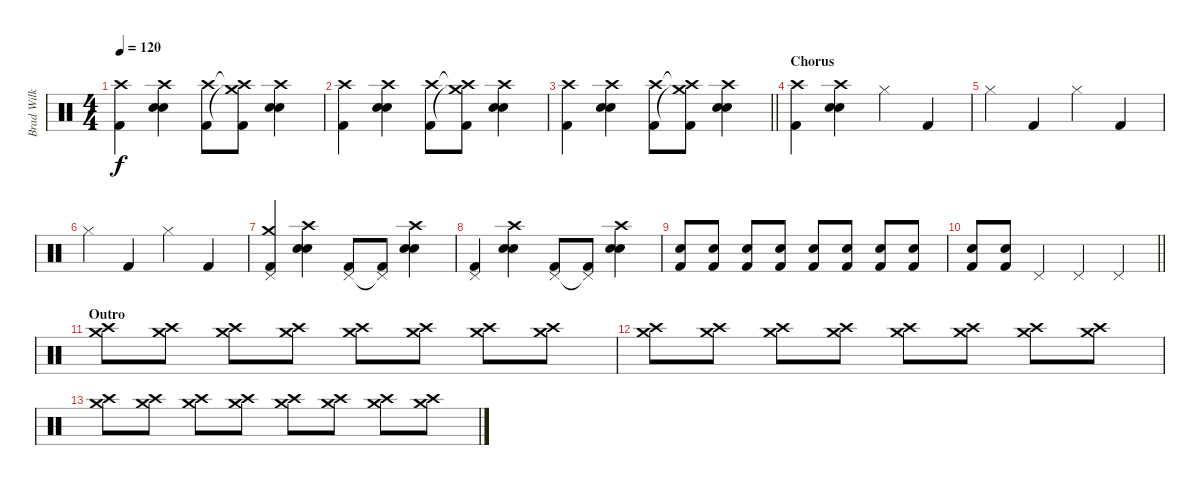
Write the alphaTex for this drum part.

\track ("Brad Wilk" "Brad Wilk") {instrument percussion}
\staff {score}
\articulation defaults
\ts (4 4)
\tempo 120
\clef neutral
\ks c
("Crash high (hit)" "Kick (hit) 2").4{dy f} ("Electric Snare (hit)" "Snare (hit) 2" "Crash high (hit)").4 ("Crash high (hit)" "Kick (hit) 2").8 ("Crash high (hit)"{t} "Crash medium (hit)"{t} "Kick (hit) 2").8 ("Electric Snare (hit)" "Snare (hit) 2" "Crash high (hit)").4 |
("Crash high (hit)" "Kick (hit) 2").4 ("Electric Snare (hit)" "Snare (hit) 2" "Crash high (hit)").4 ("Crash high (hit)" "Kick (hit) 2").8 ("Crash high (hit)"{t} "Crash medium (hit)"{t} "Kick (hit) 2").8 ("Electric Snare (hit)" "Snare (hit) 2" "Crash high (hit)").4 |
\barLineRight lightlight
("Crash high (hit)" "Kick (hit) 2").4 ("Electric Snare (hit)" "Snare (hit) 2" "Crash high (hit)").4 ("Crash high (hit)" "Kick (hit) 2").8 ("Crash high (hit)"{t} "Crash medium (hit)"{t} "Kick (hit) 2").8 ("Electric Snare (hit)" "Snare (hit) 2" "Crash high (hit)").4 |
\section ("" "Chorus")
("Crash high (hit)" "Kick (hit) 2").4 ("Electric Snare (hit)" "Snare (hit) 2" "Crash high (hit)").4 "Hi-Hat (closed)".4 "Kick (hit) 2".4 |
"Hi-Hat (closed)".4 "Kick (hit) 2".4 "Hi-Hat (closed)".4 "Kick (hit) 2".4 |
"Hi-Hat (closed)".4 "Kick (hit) 2".4 "Hi-Hat (closed)".4 "Kick (hit) 2".4 |
("Crash medium (hit)" "Pedal Hi-Hat (hit)" "Kick (hit) 2").4 ("Electric Snare (hit)" "Snare (hit) 2" "Crash high (hit)").4 ("Pedal Hi-Hat (hit)" "Kick (hit) 2").8 ("Pedal Hi-Hat (hit)"{t} "Kick (hit) 2").8 ("Electric Snare (hit)" "Snare (hit) 2" "Crash high (hit)").4 |
("Pedal Hi-Hat (hit)" "Kick (hit) 2").4 ("Electric Snare (hit)" "Snare (hit) 2" "Crash high (hit)").4 ("Pedal Hi-Hat (hit)" "Kick (hit) 2").8 ("Pedal Hi-Hat (hit)"{t} "Kick (hit) 2").8 ("Electric Snare (hit)" "Snare (hit) 2" "Crash high (hit)").4 |
("Electric Snare (hit)" "Kick (hit) 2").8 ("Electric Snare (hit)" "Kick (hit) 2").8 ("Electric Snare (hit)" "Kick (hit) 2").8 ("Electric Snare (hit)" "Kick (hit) 2").8 ("Electric Snare (hit)" "Kick (hit) 2").8 ("Electric Snare (hit)" "Kick (hit) 2").8 ("Electric Snare (hit)" "Kick (hit) 2").8 ("Electric Snare (hit)" "Kick (hit) 2").8 |
\barLineRight lightlight
("Electric Snare (hit)" "Kick (hit) 2").8 ("Electric Snare (hit)" "Kick (hit) 2").8 "Pedal Hi-Hat (hit)".4 "Pedal Hi-Hat (hit)".4 "Pedal Hi-Hat (hit)".4 |
\section ("" "Outro")
("Crash high (hit)" "Crash medium (hit)").8 ("Crash high (hit)" "Crash medium (hit)").8 ("Crash high (hit)" "Crash medium (hit)").8 ("Crash high (hit)" "Crash medium (hit)").8 ("Crash high (hit)" "Crash medium (hit)").8 ("Crash high (hit)" "Crash medium (hit)").8 ("Crash high (hit)" "Crash medium (hit)").8 ("Crash high (hit)" "Crash medium (hit)").8 |
("Crash high (hit)" "Crash medium (hit)").8 ("Crash high (hit)" "Crash medium (hit)").8 ("Crash high (hit)" "Crash medium (hit)").8 ("Crash high (hit)" "Crash medium (hit)").8 ("Crash high (hit)" "Crash medium (hit)").8 ("Crash high (hit)" "Crash medium (hit)").8 ("Crash high (hit)" "Crash medium (hit)").8 ("Crash high (hit)" "Crash medium (hit)").8 |
("Crash high (hit)" "Crash medium (hit)").8 ("Crash high (hit)" "Crash medium (hit)").8 ("Crash high (hit)" "Crash medium (hit)").8 ("Crash high (hit)" "Crash medium (hit)").8 ("Crash high (hit)" "Crash medium (hit)").8 ("Crash high (hit)" "Crash medium (hit)").8 ("Crash high (hit)" "Crash medium (hit)").8 ("Crash high (hit)" "Crash medium (hit)").8
